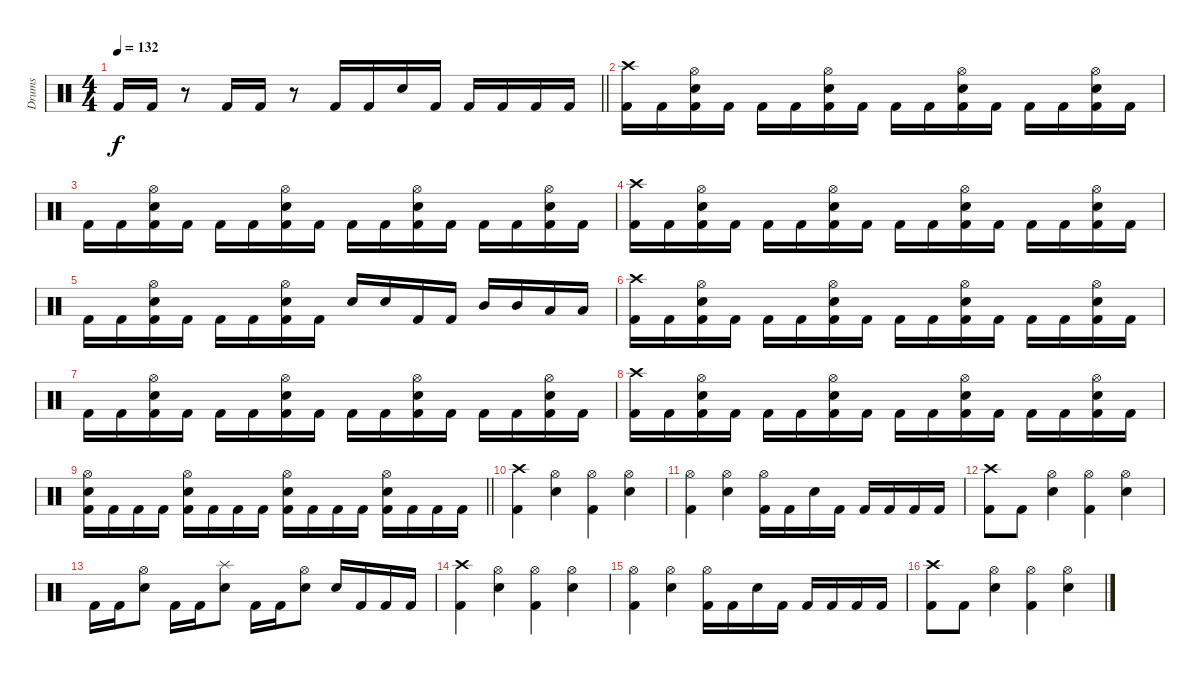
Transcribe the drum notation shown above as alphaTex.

\track ("Drums" "Drums") {instrument percussion}
\staff {score}
\articulation defaults
\ts (4 4)
\tempo 132
\clef neutral
\barLineRight lightlight
\ks c "Kick (hit) 2".16{dy f} "Kick (hit) 2".16
r.8 "Kick (hit) 2".16 "Kick (hit) 2".16 r.8 "Kick (hit) 2".16 "Kick (hit) 2".16 "Electric Snare (hit)".16 "Kick (hit) 2".16 "Kick (hit) 2".16 "Kick (hit) 2".16 "Kick (hit) 2".16 "Kick (hit) 2".16 |
\section ("" "")
("Crash high (hit)" "Kick (hit) 2").16 "Kick (hit) 2".16 ("Hi-Hat (open)" "Electric Snare (hit)" "Kick (hit) 2").16 "Kick (hit) 2".16 "Kick (hit) 2".16 "Kick (hit) 2".16 ("Hi-Hat (open)" "Electric Snare (hit)" "Kick (hit) 2").16 "Kick (hit) 2".16 "Kick (hit) 2".16 "Kick (hit) 2".16 ("Hi-Hat (open)" "Electric Snare (hit)" "Kick (hit) 2").16 "Kick (hit) 2".16 "Kick (hit) 2".16 "Kick (hit) 2".16 ("Hi-Hat (open)" "Electric Snare (hit)" "Kick (hit) 2").16 "Kick (hit) 2".16 |
"Kick (hit) 2".16 "Kick (hit) 2".16 ("Hi-Hat (open)" "Electric Snare (hit)" "Kick (hit) 2").16 "Kick (hit) 2".16 "Kick (hit) 2".16 "Kick (hit) 2".16 ("Hi-Hat (open)" "Electric Snare (hit)" "Kick (hit) 2").16 "Kick (hit) 2".16 "Kick (hit) 2".16 "Kick (hit) 2".16 ("Hi-Hat (open)" "Electric Snare (hit)" "Kick (hit) 2").16 "Kick (hit) 2".16 "Kick (hit) 2".16 "Kick (hit) 2".16 ("Hi-Hat (open)" "Electric Snare (hit)" "Kick (hit) 2").16 "Kick (hit) 2".16 |
("Crash high (hit)" "Kick (hit) 2").16 "Kick (hit) 2".16 ("Hi-Hat (open)" "Electric Snare (hit)" "Kick (hit) 2").16 "Kick (hit) 2".16 "Kick (hit) 2".16 "Kick (hit) 2".16 ("Hi-Hat (open)" "Electric Snare (hit)" "Kick (hit) 2").16 "Kick (hit) 2".16 "Kick (hit) 2".16 "Kick (hit) 2".16 ("Hi-Hat (open)" "Electric Snare (hit)" "Kick (hit) 2").16 "Kick (hit) 2".16 "Kick (hit) 2".16 "Kick (hit) 2".16 ("Hi-Hat (open)" "Electric Snare (hit)" "Kick (hit) 2").16 "Kick (hit) 2".16 |
"Kick (hit) 2".16 "Kick (hit) 2".16 ("Hi-Hat (open)" "Electric Snare (hit)" "Kick (hit) 2").16 "Kick (hit) 2".16 "Kick (hit) 2".16 "Kick (hit) 2".16 ("Hi-Hat (open)" "Electric Snare (hit)" "Kick (hit) 2").16 "Kick (hit) 2".16 "Electric Snare (hit)".16 "Electric Snare (hit)".16 "Kick (hit) 2".16 "Kick (hit) 2".16 "Mid Tom (hit)".16 "Mid Tom (hit)".16 "Low Tom (hit)".16 "Low Tom (hit)".16 |
("Crash high (hit)" "Kick (hit) 2").16 "Kick (hit) 2".16 ("Hi-Hat (open)" "Electric Snare (hit)" "Kick (hit) 2").16 "Kick (hit) 2".16 "Kick (hit) 2".16 "Kick (hit) 2".16 ("Hi-Hat (open)" "Electric Snare (hit)" "Kick (hit) 2").16 "Kick (hit) 2".16 "Kick (hit) 2".16 "Kick (hit) 2".16 ("Hi-Hat (open)" "Electric Snare (hit)" "Kick (hit) 2").16 "Kick (hit) 2".16 "Kick (hit) 2".16 "Kick (hit) 2".16 ("Hi-Hat (open)" "Electric Snare (hit)" "Kick (hit) 2").16 "Kick (hit) 2".16 |
"Kick (hit) 2".16 "Kick (hit) 2".16 ("Hi-Hat (open)" "Electric Snare (hit)" "Kick (hit) 2").16 "Kick (hit) 2".16 "Kick (hit) 2".16 "Kick (hit) 2".16 ("Hi-Hat (open)" "Electric Snare (hit)" "Kick (hit) 2").16 "Kick (hit) 2".16 "Kick (hit) 2".16 "Kick (hit) 2".16 ("Hi-Hat (open)" "Electric Snare (hit)" "Kick (hit) 2").16 "Kick (hit) 2".16 "Kick (hit) 2".16 "Kick (hit) 2".16 ("Hi-Hat (open)" "Electric Snare (hit)" "Kick (hit) 2").16 "Kick (hit) 2".16 |
("Crash high (hit)" "Kick (hit) 2").16 "Kick (hit) 2".16 ("Hi-Hat (open)" "Electric Snare (hit)" "Kick (hit) 2").16 "Kick (hit) 2".16 "Kick (hit) 2".16 "Kick (hit) 2".16 ("Hi-Hat (open)" "Electric Snare (hit)" "Kick (hit) 2").16 "Kick (hit) 2".16 "Kick (hit) 2".16 "Kick (hit) 2".16 ("Hi-Hat (open)" "Electric Snare (hit)" "Kick (hit) 2").16 "Kick (hit) 2".16 "Kick (hit) 2".16 "Kick (hit) 2".16 ("Hi-Hat (open)" "Electric Snare (hit)" "Kick (hit) 2").16 "Kick (hit) 2".16 |
\barLineRight lightlight
("Hi-Hat (open)" "Electric Snare (hit)" "Kick (hit) 2").16 "Kick (hit) 2".16 "Kick (hit) 2".16 "Kick (hit) 2".16 ("Hi-Hat (open)" "Electric Snare (hit)" "Kick (hit) 2").16 "Kick (hit) 2".16 "Kick (hit) 2".16 "Kick (hit) 2".16 ("Hi-Hat (open)" "Electric Snare (hit)" "Kick (hit) 2").16 "Kick (hit) 2".16 "Kick (hit) 2".16 "Kick (hit) 2".16 ("Hi-Hat (open)" "Electric Snare (hit)" "Kick (hit) 2").16 "Kick (hit) 2".16 "Kick (hit) 2".16 "Kick (hit) 2".16 |
\section ("" "")
("Crash high (hit)" "Kick (hit) 2").4 ("Hi-Hat (open)" "Electric Snare (hit)").4 ("Hi-Hat (open)" "Kick (hit) 2").4 ("Hi-Hat (open)" "Electric Snare (hit)").4 |
("Hi-Hat (open)" "Kick (hit) 2").4 ("Hi-Hat (open)" "Electric Snare (hit)").4 ("Hi-Hat (open)" "Kick (hit) 2").16 "Kick (hit) 2".16 "Electric Snare (hit)".16 "Kick (hit) 2".16 "Kick (hit) 2".16 "Kick (hit) 2".16 "Kick (hit) 2".16 "Kick (hit) 2".16 |
("Crash high (hit)" "Kick (hit) 2").8 "Kick (hit) 2".8 ("Hi-Hat (open)" "Electric Snare (hit)").4 ("Hi-Hat (open)" "Kick (hit) 2").4 ("Hi-Hat (open)" "Electric Snare (hit)").4 |
"Kick (hit) 2".16 "Kick (hit) 2".16 ("Hi-Hat (open)" "Electric Snare (hit)").8 "Kick (hit) 2".16 "Kick (hit) 2".16 ("Splash (hit)" "Electric Snare (hit)").8 "Kick (hit) 2".16 "Kick (hit) 2".16 ("Hi-Hat (open)" "Electric Snare (hit)").8 "Electric Snare (hit)".16 "Kick (hit) 2".16 "Kick (hit) 2".16 "Kick (hit) 2".16 |
("Crash high (hit)" "Kick (hit) 2").4 ("Hi-Hat (open)" "Electric Snare (hit)").4 ("Hi-Hat (open)" "Kick (hit) 2").4 ("Hi-Hat (open)" "Electric Snare (hit)").4 |
("Hi-Hat (open)" "Kick (hit) 2").4 ("Hi-Hat (open)" "Electric Snare (hit)").4 ("Hi-Hat (open)" "Kick (hit) 2").16 "Kick (hit) 2".16 "Electric Snare (hit)".16 "Kick (hit) 2".16 "Kick (hit) 2".16 "Kick (hit) 2".16 "Kick (hit) 2".16 "Kick (hit) 2".16 |
("Crash high (hit)" "Kick (hit) 2").8 "Kick (hit) 2".8 ("Hi-Hat (open)" "Electric Snare (hit)").4 ("Hi-Hat (open)" "Kick (hit) 2").4 ("Hi-Hat (open)" "Electric Snare (hit)").4
